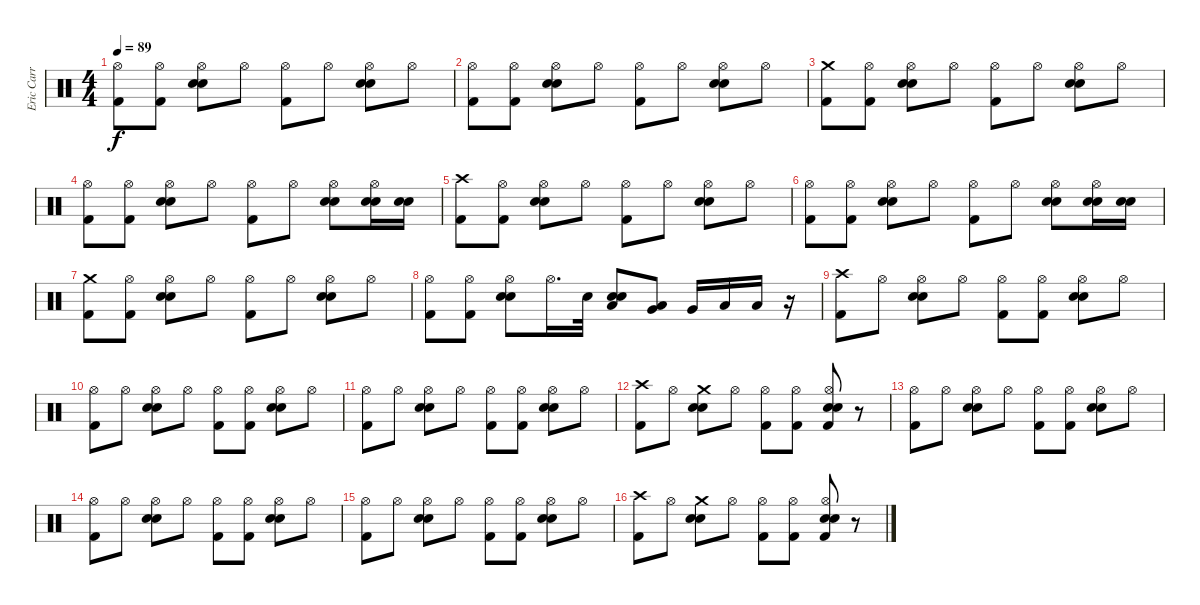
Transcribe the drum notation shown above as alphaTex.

\track ("Eric Carr (The Fox)" "Eric Carr ") {instrument percussion}
\staff {score}
\articulation defaults
\ts (4 4)
\tempo 89
\clef neutral
\ks c
("Kick (hit) 2" "Hi-Hat (open)").8{dy f} ("Kick (hit) 2" "Hi-Hat (open)").8 ("Electric Snare (hit)" "Snare (hit) 2" "Hi-Hat (open)").8 "Hi-Hat (open)".8 ("Kick (hit) 2" "Hi-Hat (open)").8 "Hi-Hat (open)".8 ("Electric Snare (hit)" "Snare (hit) 2" "Hi-Hat (open)").8 "Hi-Hat (open)".8 |
("Kick (hit) 2" "Hi-Hat (open)").8 ("Kick (hit) 2" "Hi-Hat (open)").8 ("Electric Snare (hit)" "Snare (hit) 2" "Hi-Hat (open)").8 "Hi-Hat (open)".8 ("Kick (hit) 2" "Hi-Hat (open)").8 "Hi-Hat (open)".8 ("Electric Snare (hit)" "Snare (hit) 2" "Hi-Hat (open)").8 "Hi-Hat (open)".8 |
("Crash medium (hit)" "Kick (hit) 2").8 ("Kick (hit) 2" "Hi-Hat (open)").8 ("Electric Snare (hit)" "Snare (hit) 2" "Hi-Hat (open)").8 "Hi-Hat (open)".8 ("Kick (hit) 2" "Hi-Hat (open)").8 "Hi-Hat (open)".8 ("Electric Snare (hit)" "Snare (hit) 2" "Hi-Hat (open)").8 "Hi-Hat (open)".8 |
("Kick (hit) 2" "Hi-Hat (open)").8 ("Kick (hit) 2" "Hi-Hat (open)").8 ("Electric Snare (hit)" "Snare (hit) 2" "Hi-Hat (open)").8 "Hi-Hat (open)".8 ("Kick (hit) 2" "Hi-Hat (open)").8 "Hi-Hat (open)".8 ("Electric Snare (hit)" "Snare (hit) 2" "Hi-Hat (open)").8 ("Electric Snare (hit)" "Snare (hit) 2" "Hi-Hat (open)").16 ("Electric Snare (hit)" "Snare (hit) 2").16 |
("Kick (hit) 2" "Crash high (hit)").8 ("Kick (hit) 2" "Hi-Hat (open)").8 ("Electric Snare (hit)" "Snare (hit) 2" "Hi-Hat (open)").8 "Hi-Hat (open)".8 ("Kick (hit) 2" "Hi-Hat (open)").8 "Hi-Hat (open)".8 ("Electric Snare (hit)" "Snare (hit) 2" "Hi-Hat (open)").8 "Hi-Hat (open)".8 |
("Kick (hit) 2" "Hi-Hat (open)").8 ("Kick (hit) 2" "Hi-Hat (open)").8 ("Electric Snare (hit)" "Snare (hit) 2" "Hi-Hat (open)").8 "Hi-Hat (open)".8 ("Kick (hit) 2" "Hi-Hat (open)").8 "Hi-Hat (open)".8 ("Electric Snare (hit)" "Snare (hit) 2" "Hi-Hat (open)").8 ("Electric Snare (hit)" "Snare (hit) 2" "Hi-Hat (open)").16 ("Electric Snare (hit)" "Snare (hit) 2").16 |
("Crash medium (hit)" "Kick (hit) 2").8 ("Kick (hit) 2" "Hi-Hat (open)").8 ("Electric Snare (hit)" "Snare (hit) 2" "Hi-Hat (open)").8 "Hi-Hat (open)".8 ("Kick (hit) 2" "Hi-Hat (open)").8 "Hi-Hat (open)".8 ("Electric Snare (hit)" "Snare (hit) 2" "Hi-Hat (open)").8 "Hi-Hat (open)".8 |
("Hi-Hat (open)" "Kick (hit) 2").8 ("Kick (hit) 2" "Hi-Hat (open)").8 ("Electric Snare (hit)" "Snare (hit) 2" "Hi-Hat (open)").8 "Hi-Hat (open)".16{d} "Snare (hit) 2".32 ("Electric Snare (hit)" "Low Tom (hit)" "Snare (hit) 2").8 ("Very Low Tom (hit)" "Low Tom (hit)").8 "Very Low Tom (hit)".16 "Low Floor Tom (hit)".16 "Low Floor Tom (hit)".16 r.16 |
("Crash high (hit)" "Kick (hit) 2").8 "Hi-Hat (open)".8 ("Electric Snare (hit)" "Snare (hit) 2" "Hi-Hat (open)").8 "Hi-Hat (open)".8 ("Kick (hit) 2" "Hi-Hat (open)").8 ("Kick (hit) 2" "Hi-Hat (open)").8 ("Electric Snare (hit)" "Snare (hit) 2" "Hi-Hat (open)").8 "Hi-Hat (open)".8 |
("Kick (hit) 2" "Hi-Hat (open)").8 "Hi-Hat (open)".8 ("Electric Snare (hit)" "Snare (hit) 2" "Hi-Hat (open)").8 "Hi-Hat (open)".8 ("Kick (hit) 2" "Hi-Hat (open)").8 ("Kick (hit) 2" "Hi-Hat (open)").8 ("Electric Snare (hit)" "Snare (hit) 2" "Hi-Hat (open)").8 "Hi-Hat (open)".8 |
("Hi-Hat (open)" "Kick (hit) 2").8 "Hi-Hat (open)".8 ("Electric Snare (hit)" "Snare (hit) 2" "Hi-Hat (open)").8 "Hi-Hat (open)".8 ("Kick (hit) 2" "Hi-Hat (open)").8 ("Kick (hit) 2" "Hi-Hat (open)").8 ("Electric Snare (hit)" "Snare (hit) 2" "Hi-Hat (open)").8 "Hi-Hat (open)".8 |
("Crash high (hit)" "Kick (hit) 2").8 "Hi-Hat (open)".8 ("Electric Snare (hit)" "Crash medium (hit)" "Snare (hit) 2").8 "Hi-Hat (open)".8 ("Kick (hit) 2" "Hi-Hat (open)").8 ("Kick (hit) 2" "Hi-Hat (open)").8 ("Kick (hit) 2" "Electric Snare (hit)" "Snare (hit) 2" "Hi-Hat (open)").8 r.8 |
("Hi-Hat (open)" "Kick (hit) 2").8 "Hi-Hat (open)".8 ("Electric Snare (hit)" "Snare (hit) 2" "Hi-Hat (open)").8 "Hi-Hat (open)".8 ("Kick (hit) 2" "Hi-Hat (open)").8 ("Kick (hit) 2" "Hi-Hat (open)").8 ("Electric Snare (hit)" "Snare (hit) 2" "Hi-Hat (open)").8 "Hi-Hat (open)".8 |
("Kick (hit) 2" "Hi-Hat (open)").8 "Hi-Hat (open)".8 ("Electric Snare (hit)" "Snare (hit) 2" "Hi-Hat (open)").8 "Hi-Hat (open)".8 ("Kick (hit) 2" "Hi-Hat (open)").8 ("Kick (hit) 2" "Hi-Hat (open)").8 ("Electric Snare (hit)" "Snare (hit) 2" "Hi-Hat (open)").8 "Hi-Hat (open)".8 |
("Hi-Hat (open)" "Kick (hit) 2").8 "Hi-Hat (open)".8 ("Electric Snare (hit)" "Snare (hit) 2" "Hi-Hat (open)").8 "Hi-Hat (open)".8 ("Kick (hit) 2" "Hi-Hat (open)").8 ("Kick (hit) 2" "Hi-Hat (open)").8 ("Electric Snare (hit)" "Snare (hit) 2" "Hi-Hat (open)").8 "Hi-Hat (open)".8 |
("Crash high (hit)" "Kick (hit) 2").8 "Hi-Hat (open)".8 ("Electric Snare (hit)" "Crash medium (hit)" "Snare (hit) 2").8 "Hi-Hat (open)".8 ("Kick (hit) 2" "Hi-Hat (open)").8 ("Kick (hit) 2" "Hi-Hat (open)").8 ("Kick (hit) 2" "Electric Snare (hit)" "Snare (hit) 2" "Hi-Hat (open)").8 r.8
